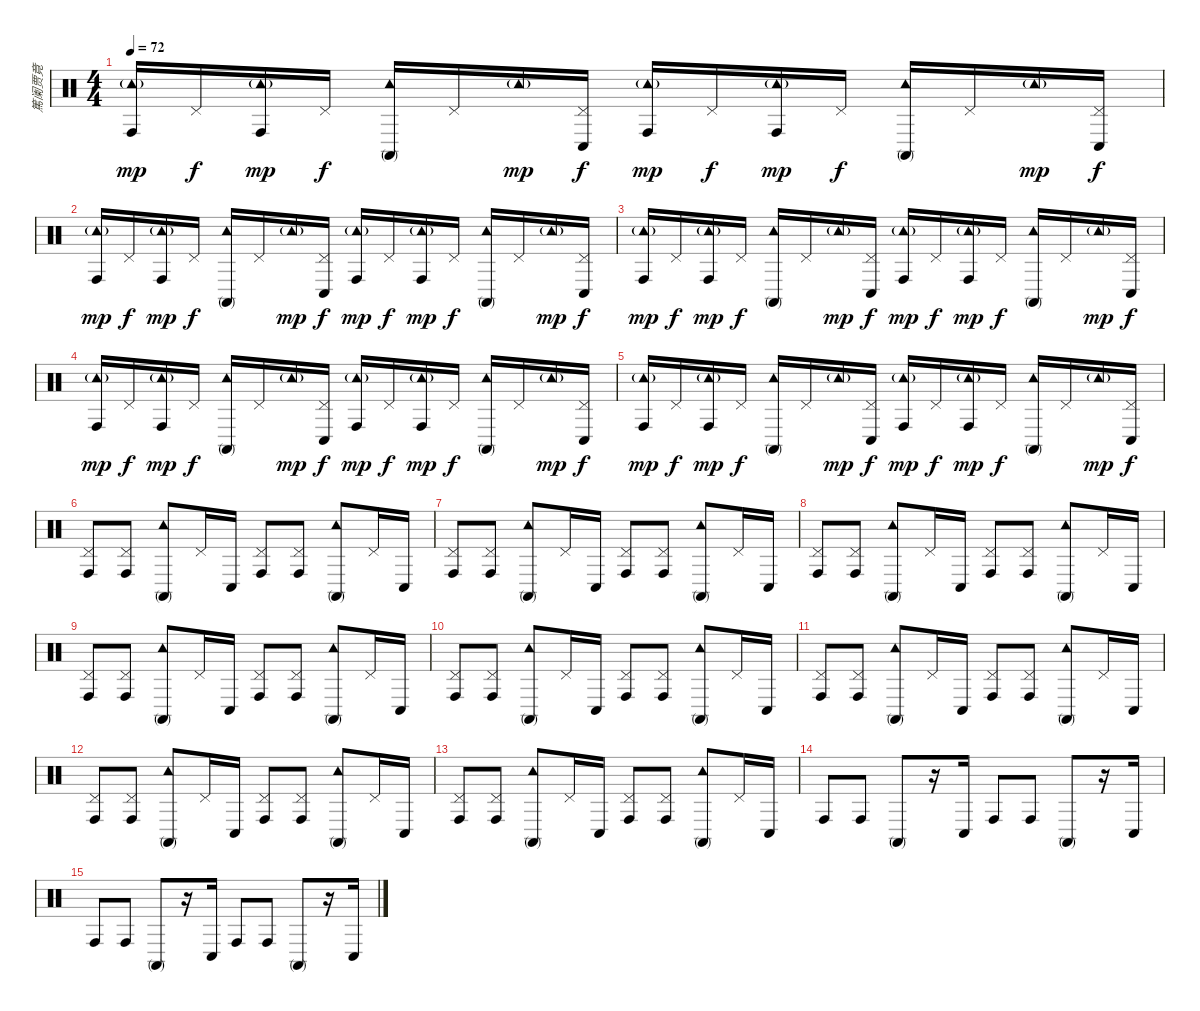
\track ("篤阑贾竟" "篤阑贾竟") {instrument percussion}
\staff {score}
\articulation defaults
\ts (4 4)
\tempo 72
\clef neutral
\ks c
("Tambourine (hit)"{g} "Conga high (hit)").16{dy mp} "Pedal Hi-Hat (hit)".16{dy f} ("Tambourine (hit)"{g} "Conga high (hit)").16{dy mp} "Pedal Hi-Hat (hit)".16{dy f} ("Tambourine (hit)" "Conga high (mute)").16 "Pedal Hi-Hat (hit)".16 "Tambourine (hit)"{g}.16{dy mp} ("Pedal Hi-Hat (hit)" "Conga low (hit)").16{dy f} ("Tambourine (hit)"{g} "Conga high (hit)").16{dy mp} "Pedal Hi-Hat (hit)".16{dy f} ("Tambourine (hit)"{g} "Conga high (hit)").16{dy mp} "Pedal Hi-Hat (hit)".16{dy f} ("Tambourine (hit)" "Conga high (mute)").16 "Pedal Hi-Hat (hit)".16 "Tambourine (hit)"{g}.16{dy mp} ("Pedal Hi-Hat (hit)" "Conga low (hit)").16{dy f} |
("Tambourine (hit)"{g} "Conga high (hit)").16{dy mp} "Pedal Hi-Hat (hit)".16{dy f} ("Tambourine (hit)"{g} "Conga high (hit)").16{dy mp} "Pedal Hi-Hat (hit)".16{dy f} ("Tambourine (hit)" "Conga high (mute)").16 "Pedal Hi-Hat (hit)".16 "Tambourine (hit)"{g}.16{dy mp} ("Pedal Hi-Hat (hit)" "Conga low (hit)").16{dy f} ("Tambourine (hit)"{g} "Conga high (hit)").16{dy mp} "Pedal Hi-Hat (hit)".16{dy f} ("Tambourine (hit)"{g} "Conga high (hit)").16{dy mp} "Pedal Hi-Hat (hit)".16{dy f} ("Tambourine (hit)" "Conga high (mute)").16 "Pedal Hi-Hat (hit)".16 "Tambourine (hit)"{g}.16{dy mp} ("Pedal Hi-Hat (hit)" "Conga low (hit)").16{dy f} |
("Tambourine (hit)"{g} "Conga high (hit)").16{dy mp} "Pedal Hi-Hat (hit)".16{dy f} ("Tambourine (hit)"{g} "Conga high (hit)").16{dy mp} "Pedal Hi-Hat (hit)".16{dy f} ("Tambourine (hit)" "Conga high (mute)").16 "Pedal Hi-Hat (hit)".16 "Tambourine (hit)"{g}.16{dy mp} ("Pedal Hi-Hat (hit)" "Conga low (hit)").16{dy f} ("Tambourine (hit)"{g} "Conga high (hit)").16{dy mp} "Pedal Hi-Hat (hit)".16{dy f} ("Tambourine (hit)"{g} "Conga high (hit)").16{dy mp} "Pedal Hi-Hat (hit)".16{dy f} ("Tambourine (hit)" "Conga high (mute)").16 "Pedal Hi-Hat (hit)".16 "Tambourine (hit)"{g}.16{dy mp} ("Pedal Hi-Hat (hit)" "Conga low (hit)").16{dy f} |
("Tambourine (hit)"{g} "Conga high (hit)").16{dy mp} "Pedal Hi-Hat (hit)".16{dy f} ("Tambourine (hit)"{g} "Conga high (hit)").16{dy mp} "Pedal Hi-Hat (hit)".16{dy f} ("Tambourine (hit)" "Conga high (mute)").16 "Pedal Hi-Hat (hit)".16 "Tambourine (hit)"{g}.16{dy mp} ("Pedal Hi-Hat (hit)" "Conga low (hit)").16{dy f} ("Tambourine (hit)"{g} "Conga high (hit)").16{dy mp} "Pedal Hi-Hat (hit)".16{dy f} ("Tambourine (hit)"{g} "Conga high (hit)").16{dy mp} "Pedal Hi-Hat (hit)".16{dy f} ("Tambourine (hit)" "Conga high (mute)").16 "Pedal Hi-Hat (hit)".16 "Tambourine (hit)"{g}.16{dy mp} ("Pedal Hi-Hat (hit)" "Conga low (hit)").16{dy f} |
("Tambourine (hit)"{g} "Conga high (hit)").16{dy mp} "Pedal Hi-Hat (hit)".16{dy f} ("Tambourine (hit)"{g} "Conga high (hit)").16{dy mp} "Pedal Hi-Hat (hit)".16{dy f} ("Tambourine (hit)" "Conga high (mute)").16 "Pedal Hi-Hat (hit)".16 "Tambourine (hit)"{g}.16{dy mp} ("Pedal Hi-Hat (hit)" "Conga low (hit)").16{dy f} ("Tambourine (hit)"{g} "Conga high (hit)").16{dy mp} "Pedal Hi-Hat (hit)".16{dy f} ("Tambourine (hit)"{g} "Conga high (hit)").16{dy mp} "Pedal Hi-Hat (hit)".16{dy f} ("Tambourine (hit)" "Conga high (mute)").16 "Pedal Hi-Hat (hit)".16 "Tambourine (hit)"{g}.16{dy mp} ("Pedal Hi-Hat (hit)" "Conga low (hit)").16{dy f} |
("Pedal Hi-Hat (hit)" "Conga high (hit)").8 ("Pedal Hi-Hat (hit)" "Conga high (hit)").8 ("Tambourine (hit)" "Conga high (mute)").8 "Pedal Hi-Hat (hit)".16 "Conga low (hit)".16 ("Pedal Hi-Hat (hit)" "Conga high (hit)").8 ("Pedal Hi-Hat (hit)" "Conga high (hit)").8 ("Tambourine (hit)" "Conga high (mute)").8 "Pedal Hi-Hat (hit)".16 "Conga low (hit)".16 |
("Pedal Hi-Hat (hit)" "Conga high (hit)").8 ("Pedal Hi-Hat (hit)" "Conga high (hit)").8 ("Tambourine (hit)" "Conga high (mute)").8 "Pedal Hi-Hat (hit)".16 "Conga low (hit)".16 ("Pedal Hi-Hat (hit)" "Conga high (hit)").8 ("Pedal Hi-Hat (hit)" "Conga high (hit)").8 ("Tambourine (hit)" "Conga high (mute)").8 "Pedal Hi-Hat (hit)".16 "Conga low (hit)".16 |
("Pedal Hi-Hat (hit)" "Conga high (hit)").8 ("Pedal Hi-Hat (hit)" "Conga high (hit)").8 ("Tambourine (hit)" "Conga high (mute)").8 "Pedal Hi-Hat (hit)".16 "Conga low (hit)".16 ("Pedal Hi-Hat (hit)" "Conga high (hit)").8 ("Pedal Hi-Hat (hit)" "Conga high (hit)").8 ("Tambourine (hit)" "Conga high (mute)").8 "Pedal Hi-Hat (hit)".16 "Conga low (hit)".16 |
("Pedal Hi-Hat (hit)" "Conga high (hit)").8 ("Pedal Hi-Hat (hit)" "Conga high (hit)").8 ("Tambourine (hit)" "Conga high (mute)").8 "Pedal Hi-Hat (hit)".16 "Conga low (hit)".16 ("Pedal Hi-Hat (hit)" "Conga high (hit)").8 ("Pedal Hi-Hat (hit)" "Conga high (hit)").8 ("Tambourine (hit)" "Conga high (mute)").8 "Pedal Hi-Hat (hit)".16 "Conga low (hit)".16 |
("Pedal Hi-Hat (hit)" "Conga high (hit)").8 ("Pedal Hi-Hat (hit)" "Conga high (hit)").8 ("Tambourine (hit)" "Conga high (mute)").8 "Pedal Hi-Hat (hit)".16 "Conga low (hit)".16 ("Pedal Hi-Hat (hit)" "Conga high (hit)").8 ("Pedal Hi-Hat (hit)" "Conga high (hit)").8 ("Tambourine (hit)" "Conga high (mute)").8 "Pedal Hi-Hat (hit)".16 "Conga low (hit)".16 |
("Pedal Hi-Hat (hit)" "Conga high (hit)").8 ("Pedal Hi-Hat (hit)" "Conga high (hit)").8 ("Tambourine (hit)" "Conga high (mute)").8 "Pedal Hi-Hat (hit)".16 "Conga low (hit)".16 ("Pedal Hi-Hat (hit)" "Conga high (hit)").8 ("Pedal Hi-Hat (hit)" "Conga high (hit)").8 ("Tambourine (hit)" "Conga high (mute)").8 "Pedal Hi-Hat (hit)".16 "Conga low (hit)".16 |
("Pedal Hi-Hat (hit)" "Conga high (hit)").8 ("Pedal Hi-Hat (hit)" "Conga high (hit)").8 ("Tambourine (hit)" "Conga high (mute)").8 "Pedal Hi-Hat (hit)".16 "Conga low (hit)".16 ("Pedal Hi-Hat (hit)" "Conga high (hit)").8 ("Pedal Hi-Hat (hit)" "Conga high (hit)").8 ("Tambourine (hit)" "Conga high (mute)").8 "Pedal Hi-Hat (hit)".16 "Conga low (hit)".16 |
("Pedal Hi-Hat (hit)" "Conga high (hit)").8 ("Pedal Hi-Hat (hit)" "Conga high (hit)").8 ("Tambourine (hit)" "Conga high (mute)").8 "Pedal Hi-Hat (hit)".16 "Conga low (hit)".16 ("Pedal Hi-Hat (hit)" "Conga high (hit)").8 ("Pedal Hi-Hat (hit)" "Conga high (hit)").8 ("Tambourine (hit)" "Conga high (mute)").8 "Pedal Hi-Hat (hit)".16 "Conga low (hit)".16 |
"Conga high (hit)".8{volume 12} "Conga high (hit)".8 "Conga high (mute)".8 r.16 "Conga low (hit)".16 "Conga high (hit)".8{volume 10} "Conga high (hit)".8 "Conga high (mute)".8 r.16 "Conga low (hit)".16 |
"Conga high (hit)".8{volume 7} "Conga high (hit)".8 "Conga high (mute)".8 r.16 "Conga low (hit)".16 "Conga high (hit)".8{volume 5} "Conga high (hit)".8 "Conga high (mute)".8 r.16 "Conga low (hit)".16
